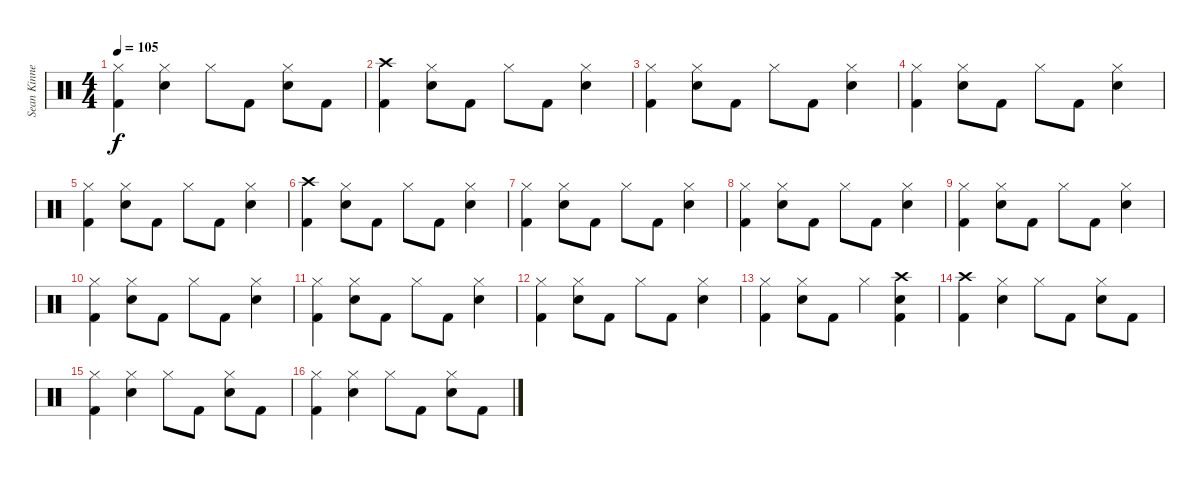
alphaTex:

\track ("Sean Kinney- Drums" "Sean Kinne") {instrument percussion}
\staff {score}
\articulation defaults
\ts (4 4)
\tempo 105
\clef neutral
\ks c
("Hi-Hat (closed)" "Kick (hit) 2").4{dy f} ("Hi-Hat (closed)" "Electric Snare (hit)").4 "Hi-Hat (closed)".8 "Kick (hit) 2".8 ("Hi-Hat (closed)" "Electric Snare (hit)").8 "Kick (hit) 2".8 |
("Crash high (hit)" "Kick (hit) 2").4 ("Hi-Hat (closed)" "Electric Snare (hit)").8 "Kick (hit) 2".8 "Hi-Hat (closed)".8 "Kick (hit) 2".8 ("Hi-Hat (closed)" "Electric Snare (hit)").4 |
("Hi-Hat (closed)" "Kick (hit) 2").4 ("Hi-Hat (closed)" "Electric Snare (hit)").8 "Kick (hit) 2".8 "Hi-Hat (closed)".8 "Kick (hit) 2".8 ("Hi-Hat (closed)" "Electric Snare (hit)").4 |
("Hi-Hat (closed)" "Kick (hit) 2").4 ("Hi-Hat (closed)" "Electric Snare (hit)").8 "Kick (hit) 2".8 "Hi-Hat (closed)".8 "Kick (hit) 2".8 ("Hi-Hat (closed)" "Electric Snare (hit)").4 |
("Hi-Hat (closed)" "Kick (hit) 2").4 ("Hi-Hat (closed)" "Electric Snare (hit)").8 "Kick (hit) 2".8 "Hi-Hat (closed)".8 "Kick (hit) 2".8 ("Hi-Hat (closed)" "Electric Snare (hit)").4 |
("Crash high (hit)" "Kick (hit) 2").4 ("Hi-Hat (closed)" "Electric Snare (hit)").8 "Kick (hit) 2".8 "Hi-Hat (closed)".8 "Kick (hit) 2".8 ("Hi-Hat (closed)" "Electric Snare (hit)").4 |
("Hi-Hat (closed)" "Kick (hit) 2").4 ("Hi-Hat (closed)" "Electric Snare (hit)").8 "Kick (hit) 2".8 "Hi-Hat (closed)".8 "Kick (hit) 2".8 ("Hi-Hat (closed)" "Electric Snare (hit)").4 |
("Hi-Hat (closed)" "Kick (hit) 2").4 ("Hi-Hat (closed)" "Electric Snare (hit)").8 "Kick (hit) 2".8 "Hi-Hat (closed)".8 "Kick (hit) 2".8 ("Hi-Hat (closed)" "Electric Snare (hit)").4 |
("Hi-Hat (closed)" "Kick (hit) 2").4 ("Hi-Hat (closed)" "Electric Snare (hit)").8 "Kick (hit) 2".8 "Hi-Hat (closed)".8 "Kick (hit) 2".8 ("Hi-Hat (closed)" "Electric Snare (hit)").4 |
("Hi-Hat (closed)" "Kick (hit) 2").4 ("Hi-Hat (closed)" "Electric Snare (hit)").8 "Kick (hit) 2".8 "Hi-Hat (closed)".8 "Kick (hit) 2".8 ("Hi-Hat (closed)" "Electric Snare (hit)").4 |
("Hi-Hat (closed)" "Kick (hit) 2").4 ("Hi-Hat (closed)" "Electric Snare (hit)").8 "Kick (hit) 2".8 "Hi-Hat (closed)".8 "Kick (hit) 2".8 ("Hi-Hat (closed)" "Electric Snare (hit)").4 |
("Hi-Hat (closed)" "Kick (hit) 2").4 ("Hi-Hat (closed)" "Electric Snare (hit)").8 "Kick (hit) 2".8 "Hi-Hat (closed)".8 "Kick (hit) 2".8 ("Hi-Hat (closed)" "Electric Snare (hit)").4 |
("Hi-Hat (closed)" "Kick (hit) 2").4 ("Hi-Hat (closed)" "Electric Snare (hit)").8 "Kick (hit) 2".8 "Hi-Hat (closed)".4 ("Crash high (hit)" "Electric Snare (hit)" "Kick (hit) 2").4 |
("Crash high (hit)" "Kick (hit) 2").4 ("Hi-Hat (closed)" "Electric Snare (hit)").4 "Hi-Hat (closed)".8 "Kick (hit) 2".8 ("Hi-Hat (closed)" "Electric Snare (hit)").8 "Kick (hit) 2".8 |
("Hi-Hat (closed)" "Kick (hit) 2").4 ("Hi-Hat (closed)" "Electric Snare (hit)").4 "Hi-Hat (closed)".8 "Kick (hit) 2".8 ("Hi-Hat (closed)" "Electric Snare (hit)").8 "Kick (hit) 2".8 |
("Hi-Hat (closed)" "Kick (hit) 2").4 ("Hi-Hat (closed)" "Electric Snare (hit)").4 "Hi-Hat (closed)".8 "Kick (hit) 2".8 ("Hi-Hat (closed)" "Electric Snare (hit)").8 "Kick (hit) 2".8
